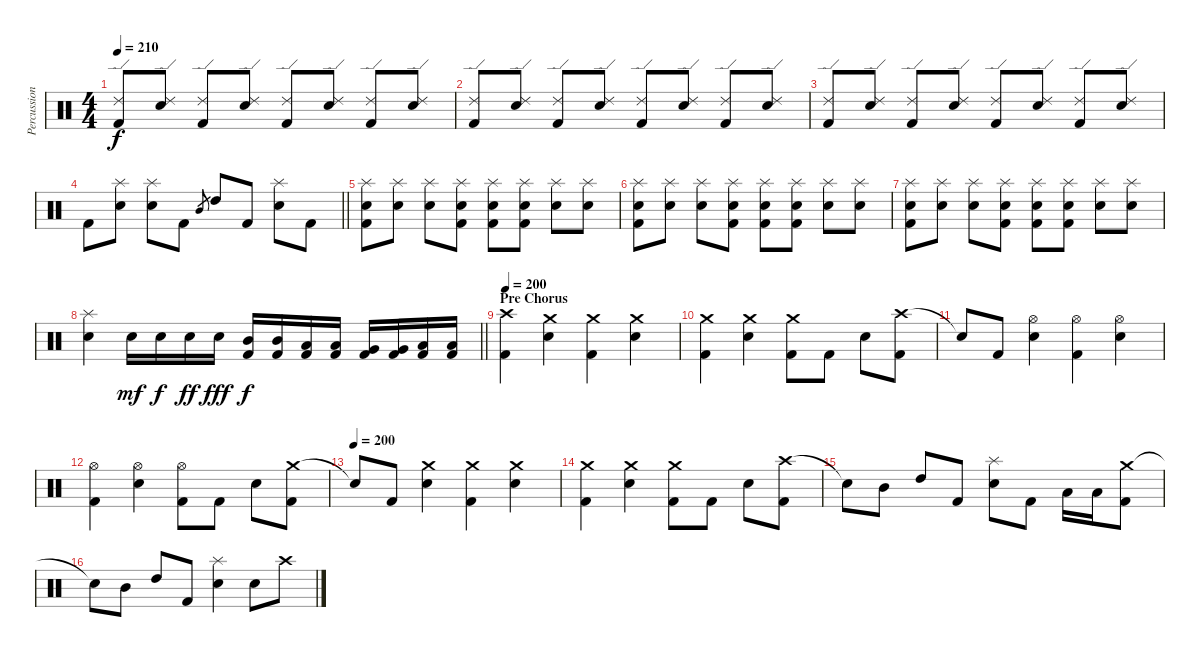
\track ("Percussion" "Percussion") {instrument percussion}
\staff {score}
\articulation defaults
\ts (4 4)
\tempo 210
\clef neutral
\ks c
("Ride (edge) 2" "Kick (hit) 2").8{dy f} ("Ride (edge) 2" "Electric Snare (hit)").8 ("Ride (edge) 2" "Kick (hit) 2").8 ("Ride (edge) 2" "Electric Snare (hit)").8 ("Ride (edge) 2" "Kick (hit) 2").8 ("Ride (edge) 2" "Electric Snare (hit)").8 ("Ride (edge) 2" "Kick (hit) 2").8 ("Ride (edge) 2" "Electric Snare (hit)").8 |
("Ride (edge) 2" "Kick (hit) 2").8 ("Ride (edge) 2" "Electric Snare (hit)").8 ("Ride (edge) 2" "Kick (hit) 2").8 ("Ride (edge) 2" "Electric Snare (hit)").8 ("Ride (edge) 2" "Kick (hit) 2").8 ("Ride (edge) 2" "Electric Snare (hit)").8 ("Ride (edge) 2" "Kick (hit) 2").8 ("Ride (edge) 2" "Electric Snare (hit)").8 |
("Ride (edge) 2" "Kick (hit) 2").8 ("Ride (edge) 2" "Electric Snare (hit)").8 ("Ride (edge) 2" "Kick (hit) 2").8 ("Ride (edge) 2" "Electric Snare (hit)").8 ("Ride (edge) 2" "Kick (hit) 2").8 ("Ride (edge) 2" "Electric Snare (hit)").8 ("Ride (edge) 2" "Kick (hit) 2").8 ("Ride (edge) 2" "Electric Snare (hit)").8 |
\barLineRight lightlight "Kick (hit) 2".8
("Splash (hit)" "Electric Snare (hit)").8 ("Splash (hit)" "Electric Snare (hit)").8 "Kick (hit) 2".8 "Mid Tom (hit)".8{gr} "High Tom (hit)".8 "Kick (hit) 2".8 ("Splash (hit)" "Electric Snare (hit)").8 "Kick (hit) 2".8 |
("Splash (hit)" "Electric Snare (hit)" "Kick (hit) 2").8 ("Splash (hit)" "Electric Snare (hit)").8 ("Splash (hit)" "Electric Snare (hit)").8 ("Splash (hit)" "Electric Snare (hit)" "Kick (hit) 2").8 ("Splash (hit)" "Electric Snare (hit)" "Kick (hit) 2").8 ("Splash (hit)" "Electric Snare (hit)" "Kick (hit) 2").8 ("Splash (hit)" "Electric Snare (hit)").8 ("Splash (hit)" "Electric Snare (hit)").8 |
("Splash (hit)" "Electric Snare (hit)" "Kick (hit) 2").8 ("Splash (hit)" "Electric Snare (hit)").8 ("Splash (hit)" "Electric Snare (hit)").8 ("Splash (hit)" "Electric Snare (hit)" "Kick (hit) 2").8 ("Splash (hit)" "Electric Snare (hit)" "Kick (hit) 2").8 ("Splash (hit)" "Electric Snare (hit)" "Kick (hit) 2").8 ("Splash (hit)" "Electric Snare (hit)").8 ("Splash (hit)" "Electric Snare (hit)").8 |
("Splash (hit)" "Electric Snare (hit)" "Kick (hit) 2").8 ("Splash (hit)" "Electric Snare (hit)").8 ("Splash (hit)" "Electric Snare (hit)").8 ("Splash (hit)" "Electric Snare (hit)" "Kick (hit) 2").8 ("Splash (hit)" "Electric Snare (hit)" "Kick (hit) 2").8 ("Splash (hit)" "Electric Snare (hit)" "Kick (hit) 2").8 ("Splash (hit)" "Electric Snare (hit)").8 ("Splash (hit)" "Electric Snare (hit)").8 |
\barLineRight lightlight
("Splash (hit)" "Electric Snare (hit)").4 "Electric Snare (hit)".16{dy mf} "Electric Snare (hit)".16{dy f} "Electric Snare (hit)".16{dy ff} "Electric Snare (hit)".16{dy fff} ("Mid Tom (hit)" "Kick (hit) 2").16{dy f} ("Mid Tom (hit)" "Kick (hit) 2").16 ("Low Tom (hit)" "Kick (hit) 2").16 ("Low Tom (hit)" "Kick (hit) 2").16 ("Very Low Tom (hit)" "Kick (hit) 2").16 ("Very Low Tom (hit)" "Kick (hit) 2").16 ("Low Floor Tom (hit)" "Kick (hit) 2").16 ("Low Floor Tom (hit)" "Kick (hit) 2").16 |
\section ("" "Pre Chorus")
\tempo 200
("Crash high (hit)" "Kick (hit) 2").4 ("Crash medium (hit)" "Electric Snare (hit)").4 ("Crash medium (hit)" "Kick (hit) 2").4 ("Crash medium (hit)" "Electric Snare (hit)").4 |
("Crash medium (hit)" "Kick (hit) 2").4 ("Crash medium (hit)" "Electric Snare (hit)").4 ("Crash medium (hit)" "Kick (hit) 2").8 "Kick (hit) 2".8 "Electric Snare (hit)".8 ("Crash high (hit)" "Kick (hit) 2").8 |
"Snare (hit)"{t}.8 "Kick (hit) 2".8 ("Hi-Hat (open)" "Electric Snare (hit)").4 ("Hi-Hat (open)" "Kick (hit) 2").4 ("Hi-Hat (open)" "Electric Snare (hit)").4 |
("Hi-Hat (open)" "Kick (hit) 2").4 ("Hi-Hat (open)" "Electric Snare (hit)").4 ("Hi-Hat (open)" "Kick (hit) 2").8 "Kick (hit) 2".8 "Electric Snare (hit)".8 ("Crash medium (hit)" "Kick (hit) 2").8 |
\tempo (200)
"Snare (hit)"{t}.8 "Kick (hit) 2".8 ("Crash medium (hit)" "Electric Snare (hit)").4 ("Crash medium (hit)" "Kick (hit) 2").4 ("Crash medium (hit)" "Electric Snare (hit)").4 |
("Crash medium (hit)" "Kick (hit) 2").4 ("Crash medium (hit)" "Electric Snare (hit)").4 ("Crash medium (hit)" "Kick (hit) 2").8 "Kick (hit) 2".8 "Electric Snare (hit)".8 ("Crash high (hit)" "Kick (hit) 2").8 |
"Snare (hit)"{t}.8 "Mid Tom (hit)".8 "High Tom (hit)".8 "Kick (hit) 2".8 ("Splash (hit)" "Electric Snare (hit)").8 "Kick (hit) 2".8 "Low Tom (hit)".16 "Low Tom (hit)".16 ("Crash medium (hit)" "Kick (hit) 2").8 |
"Snare (hit)"{t}.8 "Mid Tom (hit)".8 "High Tom (hit)".8 "Kick (hit) 2".8 ("Splash (hit)" "Electric Snare (hit)").4 "Electric Snare (hit)".8 "Crash high (hit)".8
